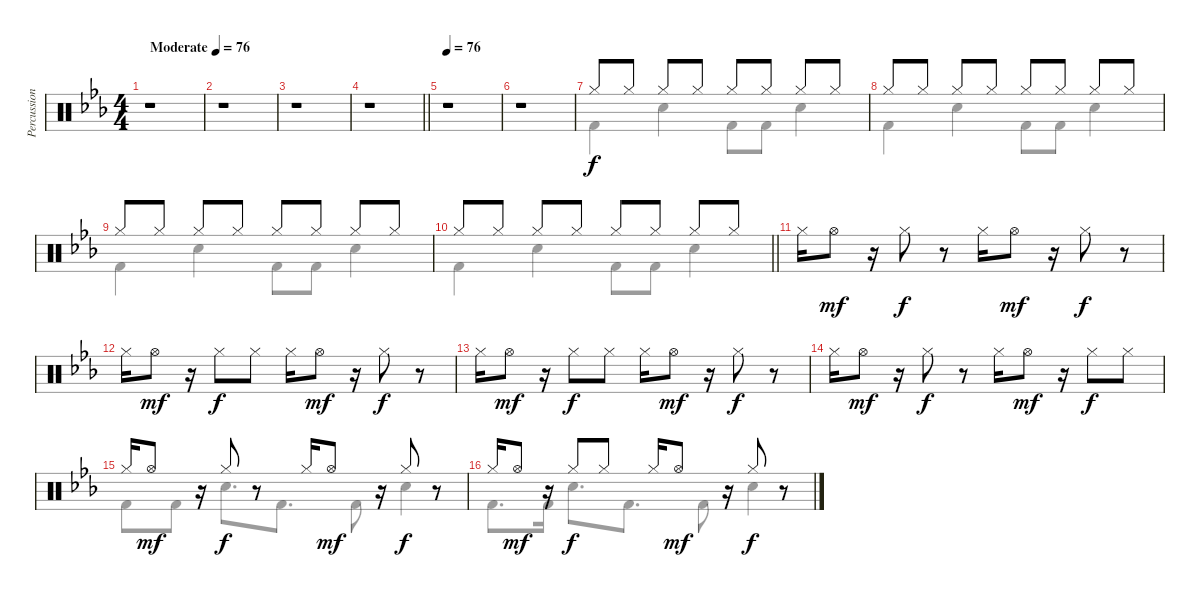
\track ("Percussion" "Percussion") {instrument percussion}
\staff {score}
\articulation defaults
\voice
\ts (4 4)
\tempo (76 "Moderate")
\tempo 69
\tempo (76 "Moderate")
\clef neutral
\ks cminor
r.1{dy f} |
r.1 |
r.1 |
\barLineRight lightlight
r.1 |
\tempo 76
r.1 |
r.1 |
"Hi-Hat (closed)".8 "Hi-Hat (closed)".8 "Hi-Hat (closed)".8 "Hi-Hat (closed)".8 "Hi-Hat (closed)".8 "Hi-Hat (closed)".8 "Hi-Hat (closed)".8 "Hi-Hat (closed)".8 |
"Hi-Hat (closed)".8 "Hi-Hat (closed)".8 "Hi-Hat (closed)".8 "Hi-Hat (closed)".8 "Hi-Hat (closed)".8 "Hi-Hat (closed)".8 "Hi-Hat (closed)".8 "Hi-Hat (closed)".8 |
"Hi-Hat (closed)".8 "Hi-Hat (closed)".8 "Hi-Hat (closed)".8 "Hi-Hat (closed)".8 "Hi-Hat (closed)".8 "Hi-Hat (closed)".8 "Hi-Hat (closed)".8 "Hi-Hat (closed)".8 |
\barLineRight lightlight "Hi-Hat (closed)".8 "Hi-Hat (closed)".8 "Hi-Hat (closed)".8 "Hi-Hat (closed)".8 "Hi-Hat (closed)".8 "Hi-Hat (closed)".8 "Hi-Hat (closed)".8 "Hi-Hat (closed)".8
|
"Hi-Hat (closed)".16 "Hi-Hat (open)".8{dy mf} r.16 "Hi-Hat (closed)".8{dy f} r.8 "Hi-Hat (closed)".16 "Hi-Hat (open)".8{dy mf} r.16 "Hi-Hat (closed)".8{dy f} r.8 |
"Hi-Hat (closed)".16 "Hi-Hat (open)".8{dy mf} r.16 "Hi-Hat (closed)".8{dy f} "Hi-Hat (closed)".8 "Hi-Hat (closed)".16 "Hi-Hat (open)".8{dy mf} r.16 "Hi-Hat (closed)".8{dy f} r.8 |
"Hi-Hat (closed)".16 "Hi-Hat (open)".8{dy mf} r.16 "Hi-Hat (closed)".8{dy f} "Hi-Hat (closed)".8 "Hi-Hat (closed)".16 "Hi-Hat (open)".8{dy mf} r.16 "Hi-Hat (closed)".8{dy f} r.8 |
"Hi-Hat (closed)".16 "Hi-Hat (open)".8{dy mf} r.16 "Hi-Hat (closed)".8{dy f} r.8 "Hi-Hat (closed)".16 "Hi-Hat (open)".8{dy mf} r.16 "Hi-Hat (closed)".8{dy f} "Hi-Hat (closed)".8 |
"Hi-Hat (closed)".16 "Hi-Hat (open)".8{dy mf} r.16 "Hi-Hat (closed)".8{dy f} r.8 "Hi-Hat (closed)".16 "Hi-Hat (open)".8{dy mf} r.16 "Hi-Hat (closed)".8{dy f} r.8 |
"Hi-Hat (closed)".16 "Hi-Hat (open)".8{dy mf} r.16 "Hi-Hat (closed)".8{dy f} "Hi-Hat (closed)".8 "Hi-Hat (closed)".16 "Hi-Hat (open)".8{dy mf} r.16 "Hi-Hat (closed)".8{dy f} r.8
\voice
\clef neutral
\ottava regular
\simile none
\ks cminor
|
|
|
\barLineRight lightlight
|
|
|
"Kick (hit) 2".4 "Snare (hit) 2".4 "Kick (hit) 2".8 "Kick (hit) 2".8 "Snare (hit) 2".4 |
"Kick (hit) 2".4 "Snare (hit) 2".4 "Kick (hit) 2".8 "Kick (hit) 2".8 "Snare (hit) 2".4 |
"Kick (hit) 2".4 "Snare (hit) 2".4 "Kick (hit) 2".8 "Kick (hit) 2".8 "Snare (hit) 2".4 |
\barLineRight lightlight "Kick (hit) 2".4 "Snare (hit) 2".4 "Kick (hit) 2".8 "Kick (hit) 2".8 "Snare (hit) 2".4
|
|
|
|
|
"Kick (hit) 2".8 "Kick (hit) 2".8 "Electric Snare (hit)".8{d} "Kick (hit) 2".8{d} "Kick (hit) 2".8 "Electric Snare (hit)".4 |
"Kick (hit) 2".8{d} "Kick (hit) 2".16 "Electric Snare (hit)".8{d} "Kick (hit) 2".8{d} "Kick (hit) 2".8 "Electric Snare (hit)".4
